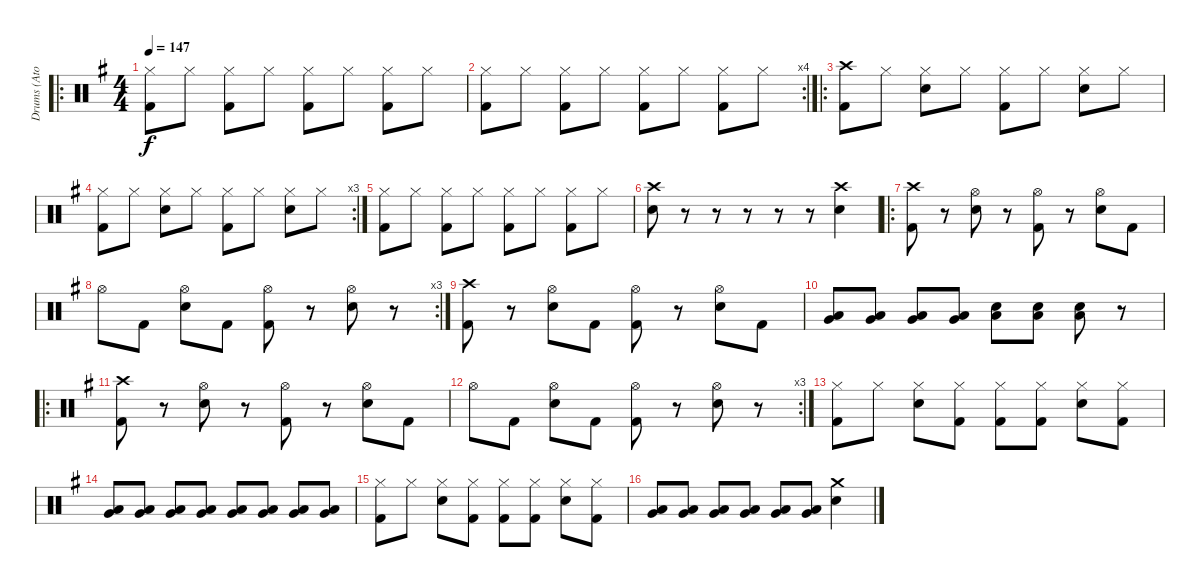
\track ("Drums (Atom Willard)" "Drums (Ato") {instrument percussion}
\staff {score}
\articulation defaults
\ro
\ts (4 4)
\tempo 147
\clef neutral
\ks g
("Hi-Hat (closed)" "Kick (hit) 2").8{dy f} "Hi-Hat (closed)".8 ("Hi-Hat (closed)" "Kick (hit) 2").8 "Hi-Hat (closed)".8 ("Hi-Hat (closed)" "Kick (hit) 2").8 "Hi-Hat (closed)".8 ("Hi-Hat (closed)" "Kick (hit) 2").8 "Hi-Hat (closed)".8 |
\rc 4
("Hi-Hat (closed)" "Kick (hit) 2").8 "Hi-Hat (closed)".8 ("Hi-Hat (closed)" "Kick (hit) 2").8 "Hi-Hat (closed)".8 ("Hi-Hat (closed)" "Kick (hit) 2").8 "Hi-Hat (closed)".8 ("Hi-Hat (closed)" "Kick (hit) 2").8 "Hi-Hat (closed)".8 |
\ro
("Crash high (hit)" "Kick (hit) 2").8 "Hi-Hat (closed)".8 ("Hi-Hat (closed)" "Snare (hit) 2").8 "Hi-Hat (closed)".8 ("Hi-Hat (closed)" "Kick (hit) 2").8 "Hi-Hat (closed)".8 ("Hi-Hat (closed)" "Snare (hit) 2").8 "Hi-Hat (closed)".8 |
\rc 3
("Hi-Hat (closed)" "Kick (hit) 2").8 "Hi-Hat (closed)".8 ("Hi-Hat (closed)" "Snare (hit) 2").8 "Hi-Hat (closed)".8 ("Hi-Hat (closed)" "Kick (hit) 2").8 "Hi-Hat (closed)".8 ("Hi-Hat (closed)" "Snare (hit) 2").8 "Hi-Hat (closed)".8 |
("Hi-Hat (closed)" "Kick (hit) 2").8 "Hi-Hat (closed)".8 ("Hi-Hat (closed)" "Kick (hit) 2").8 "Hi-Hat (closed)".8 ("Hi-Hat (closed)" "Kick (hit) 2").8 "Hi-Hat (closed)".8 ("Hi-Hat (closed)" "Kick (hit) 2").8 "Hi-Hat (closed)".8 |
("Crash high (hit)" "Snare (hit) 2").8 r.8 r.8 r.8 r.8 r.8 ("Crash high (hit)" "Snare (hit) 2").4 |
\ro
("Crash high (hit)" "Kick (hit) 2").8 r.8 ("Hi-Hat (open)" "Snare (hit) 2").8 r.8 ("Hi-Hat (open)" "Kick (hit) 2").8 r.8 ("Hi-Hat (open)" "Snare (hit) 2").8 "Kick (hit) 2".8 |
\rc 3 "Hi-Hat (open)".8 "Kick (hit) 2".8
("Hi-Hat (open)" "Snare (hit) 2").8 "Kick (hit) 2".8 ("Hi-Hat (open)" "Kick (hit) 2").8 r.8 ("Hi-Hat (open)" "Snare (hit) 2").8 r.8 |
("Crash high (hit)" "Kick (hit) 2").8 r.8 ("Hi-Hat (open)" "Snare (hit) 2").8 "Kick (hit) 2".8 ("Hi-Hat (open)" "Kick (hit) 2").8 r.8 ("Hi-Hat (open)" "Snare (hit) 2").8 "Kick (hit) 2".8 |
("Low Floor Tom (hit)" "Very Low Tom (hit)").8 ("Low Floor Tom (hit)" "Very Low Tom (hit)").8 ("Low Floor Tom (hit)" "Very Low Tom (hit)").8 ("Low Floor Tom (hit)" "Very Low Tom (hit)").8 ("Low Floor Tom (hit)" "Snare (hit) 2").8 ("Low Floor Tom (hit)" "Snare (hit) 2").8 ("Low Floor Tom (hit)" "Snare (hit) 2").8 r.8 |
\ro
("Crash high (hit)" "Kick (hit) 2").8 r.8 ("Hi-Hat (open)" "Snare (hit) 2").8 r.8 ("Hi-Hat (open)" "Kick (hit) 2").8 r.8 ("Hi-Hat (open)" "Snare (hit) 2").8 "Kick (hit) 2".8 |
\rc 3 "Hi-Hat (open)".8 "Kick (hit) 2".8
("Hi-Hat (open)" "Snare (hit) 2").8 "Kick (hit) 2".8 ("Hi-Hat (open)" "Kick (hit) 2").8 r.8 ("Hi-Hat (open)" "Snare (hit) 2").8 r.8 |
("Hi-Hat (closed)" "Kick (hit) 2").8 "Hi-Hat (closed)".8 ("Hi-Hat (closed)" "Snare (hit) 2").8 ("Hi-Hat (closed)" "Kick (hit) 2").8 ("Hi-Hat (closed)" "Kick (hit) 2").8 ("Hi-Hat (closed)" "Kick (hit) 2").8 ("Hi-Hat (closed)" "Snare (hit) 2").8 ("Hi-Hat (closed)" "Kick (hit) 2").8 |
("Very Low Tom (hit)" "Low Floor Tom (hit)").8 ("Very Low Tom (hit)" "Low Floor Tom (hit)").8 ("Very Low Tom (hit)" "Low Floor Tom (hit)").8 ("Very Low Tom (hit)" "Low Floor Tom (hit)").8 ("Very Low Tom (hit)" "Low Floor Tom (hit)").8 ("Very Low Tom (hit)" "Low Floor Tom (hit)").8 ("Very Low Tom (hit)" "Low Floor Tom (hit)").8 ("Very Low Tom (hit)" "Low Floor Tom (hit)").8 |
("Hi-Hat (closed)" "Kick (hit) 2").8 "Hi-Hat (closed)".8 ("Hi-Hat (closed)" "Snare (hit) 2").8 ("Hi-Hat (closed)" "Kick (hit) 2").8 ("Hi-Hat (closed)" "Kick (hit) 2").8 ("Hi-Hat (closed)" "Kick (hit) 2").8 ("Hi-Hat (closed)" "Snare (hit) 2").8 ("Hi-Hat (closed)" "Kick (hit) 2").8 |
("Very Low Tom (hit)" "Low Floor Tom (hit)").8 ("Very Low Tom (hit)" "Low Floor Tom (hit)").8 ("Very Low Tom (hit)" "Low Floor Tom (hit)").8 ("Very Low Tom (hit)" "Low Floor Tom (hit)").8 ("Very Low Tom (hit)" "Low Floor Tom (hit)").8 ("Very Low Tom (hit)" "Low Floor Tom (hit)").8 ("Crash medium (hit)" "Snare (hit) 2").4
